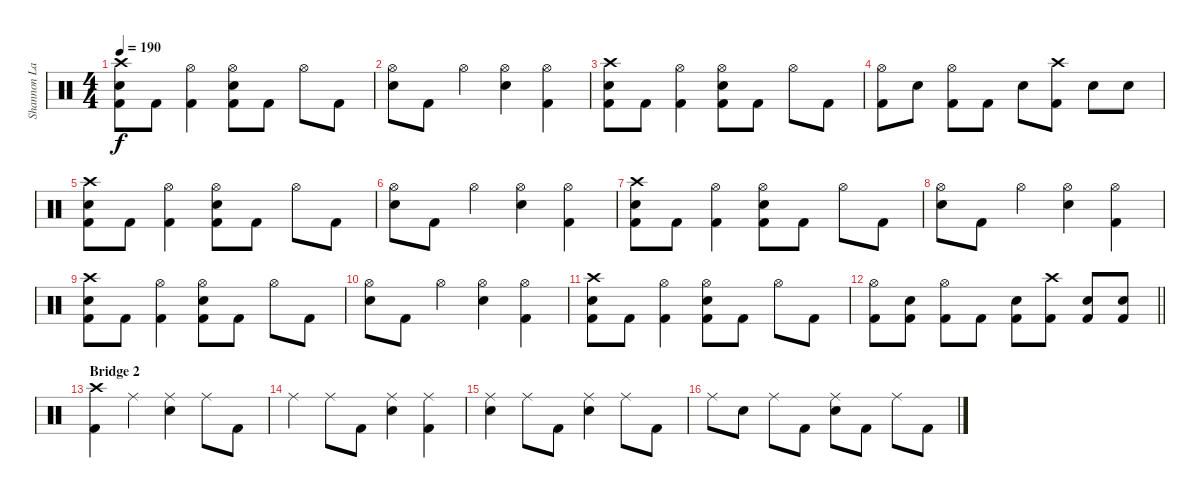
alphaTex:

\track ("Shannon Larkin" "Shannon La") {instrument percussion}
\staff {score}
\articulation defaults
\ts (4 4)
\tempo 190
\clef neutral
\ks c
("Crash high (hit)" "Snare (hit) 2" "Kick (hit) 2").8{dy f} "Kick (hit) 2".8 ("Hi-Hat (open)" "Kick (hit) 2").4 ("Hi-Hat (open)" "Snare (hit) 2" "Kick (hit) 2").8 "Kick (hit) 2".8 "Hi-Hat (open)".8 "Kick (hit) 2".8 |
("Hi-Hat (open)" "Snare (hit) 2").8 "Kick (hit) 2".8 "Hi-Hat (open)".4 ("Hi-Hat (open)" "Snare (hit) 2").4 ("Hi-Hat (open)" "Kick (hit) 2").4 |
("Crash high (hit)" "Snare (hit) 2" "Kick (hit) 2").8 "Kick (hit) 2".8 ("Hi-Hat (open)" "Kick (hit) 2").4 ("Hi-Hat (open)" "Snare (hit) 2" "Kick (hit) 2").8 "Kick (hit) 2".8 "Hi-Hat (open)".8 "Kick (hit) 2".8 |
("Hi-Hat (open)" "Kick (hit) 2").8 "Snare (hit) 2".8 ("Hi-Hat (open)" "Kick (hit) 2").8 "Kick (hit) 2".8 "Snare (hit) 2".8 ("Crash high (hit)" "Kick (hit) 2").8 "Snare (hit) 2".8 "Snare (hit) 2".8 |
("Crash high (hit)" "Snare (hit) 2" "Kick (hit) 2").8 "Kick (hit) 2".8 ("Hi-Hat (open)" "Kick (hit) 2").4 ("Hi-Hat (open)" "Snare (hit) 2" "Kick (hit) 2").8 "Kick (hit) 2".8 "Hi-Hat (open)".8 "Kick (hit) 2".8 |
("Hi-Hat (open)" "Snare (hit) 2").8 "Kick (hit) 2".8 "Hi-Hat (open)".4 ("Hi-Hat (open)" "Snare (hit) 2").4 ("Hi-Hat (open)" "Kick (hit) 2").4 |
("Crash high (hit)" "Snare (hit) 2" "Kick (hit) 2").8 "Kick (hit) 2".8 ("Hi-Hat (open)" "Kick (hit) 2").4 ("Hi-Hat (open)" "Snare (hit) 2" "Kick (hit) 2").8 "Kick (hit) 2".8 "Hi-Hat (open)".8 "Kick (hit) 2".8 |
("Hi-Hat (open)" "Snare (hit) 2").8 "Kick (hit) 2".8 "Hi-Hat (open)".4 ("Hi-Hat (open)" "Snare (hit) 2").4 ("Hi-Hat (open)" "Kick (hit) 2").4 |
("Crash high (hit)" "Snare (hit) 2" "Kick (hit) 2").8 "Kick (hit) 2".8 ("Hi-Hat (open)" "Kick (hit) 2").4 ("Hi-Hat (open)" "Snare (hit) 2" "Kick (hit) 2").8 "Kick (hit) 2".8 "Hi-Hat (open)".8 "Kick (hit) 2".8 |
("Hi-Hat (open)" "Snare (hit) 2").8 "Kick (hit) 2".8 "Hi-Hat (open)".4 ("Hi-Hat (open)" "Snare (hit) 2").4 ("Hi-Hat (open)" "Kick (hit) 2").4 |
("Crash high (hit)" "Snare (hit) 2" "Kick (hit) 2").8 "Kick (hit) 2".8 ("Hi-Hat (open)" "Kick (hit) 2").4 ("Hi-Hat (open)" "Snare (hit) 2" "Kick (hit) 2").8 "Kick (hit) 2".8 "Hi-Hat (open)".8 "Kick (hit) 2".8 |
\barLineRight lightlight
("Hi-Hat (open)" "Kick (hit) 2").8 ("Snare (hit) 2" "Kick (hit) 2").8 ("Hi-Hat (open)" "Kick (hit) 2").8 "Kick (hit) 2".8 ("Snare (hit) 2" "Kick (hit) 2").8 ("Crash high (hit)" "Kick (hit) 2").8 ("Snare (hit) 2" "Kick (hit) 2").8 ("Snare (hit) 2" "Kick (hit) 2").8 |
\section ("" "Bridge 2")
("Crash high (hit)" "Kick (hit) 2").4 "Ride (middle)".4 ("Ride (middle)" "Snare (hit) 2").4 "Ride (middle)".8 "Kick (hit) 2".8 |
"Ride (middle)".4 "Ride (middle)".8 "Kick (hit) 2".8 ("Ride (middle)" "Snare (hit) 2").4 ("Ride (middle)" "Kick (hit) 2").4 |
("Ride (middle)" "Snare (hit) 2").4 "Ride (middle)".8 "Kick (hit) 2".8 ("Ride (middle)" "Snare (hit) 2").4 "Ride (middle)".8 "Kick (hit) 2".8 |
"Ride (middle)".8 "Snare (hit) 2".8 "Ride (middle)".8 "Kick (hit) 2".8 ("Ride (middle)" "Snare (hit) 2").8 "Kick (hit) 2".8 "Ride (middle)".8 "Kick (hit) 2".8
